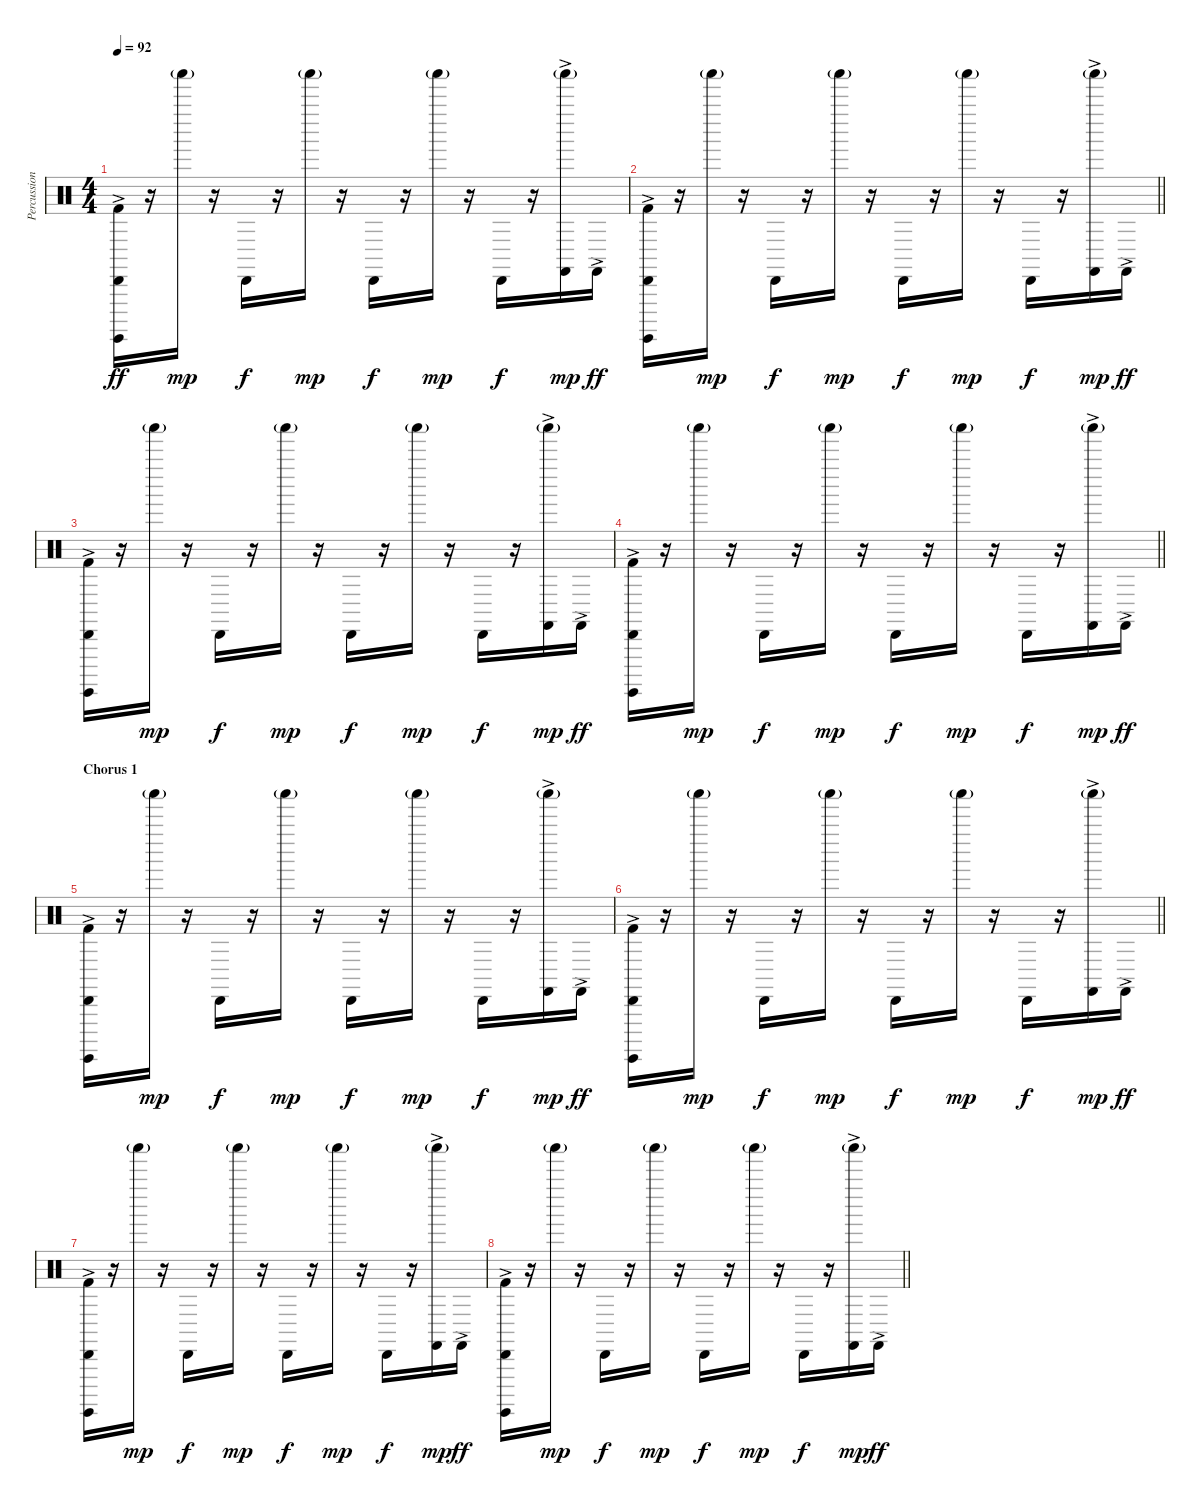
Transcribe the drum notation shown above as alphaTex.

\track ("Percussion" "Percussion") {instrument percussion}
\staff {score}
\articulation defaults
\ts (4 4)
\tempo 92
\clef neutral
\ks c
("Kick (hit) 2" "Surdo (hit)"{ac} "Cabasa (hit)").16{dy ff} r.16 "Shaker (hit)"{g}.16{dy mp} r.16 "Cabasa (hit)".16{dy f} r.16 "Shaker (hit)"{g}.16{dy mp} r.16 "Cabasa (hit)".16{dy f} r.16 "Shaker (hit)"{g}.16{dy mp} r.16 "Cabasa (hit)".16{dy f} r.16 ("Castanets (hit)"{ac} "Shaker (hit)"{g}).16{dy mp} "Castanets (hit)"{ac}.16{dy ff} |
\barLineRight lightlight
("Kick (hit) 2" "Surdo (hit)"{ac} "Cabasa (hit)").16 r.16 "Shaker (hit)"{g}.16{dy mp} r.16 "Cabasa (hit)".16{dy f} r.16 "Shaker (hit)"{g}.16{dy mp} r.16 "Cabasa (hit)".16{dy f} r.16 "Shaker (hit)"{g}.16{dy mp} r.16 "Cabasa (hit)".16{dy f} r.16 ("Castanets (hit)"{ac} "Shaker (hit)"{g}).16{dy mp} "Castanets (hit)"{ac}.16{dy ff} |
("Kick (hit) 2" "Surdo (hit)"{ac} "Cabasa (hit)").16 r.16 "Shaker (hit)"{g}.16{dy mp} r.16 "Cabasa (hit)".16{dy f} r.16 "Shaker (hit)"{g}.16{dy mp} r.16 "Cabasa (hit)".16{dy f} r.16 "Shaker (hit)"{g}.16{dy mp} r.16 "Cabasa (hit)".16{dy f} r.16 ("Castanets (hit)"{ac} "Shaker (hit)"{g}).16{dy mp} "Castanets (hit)"{ac}.16{dy ff} |
\barLineRight lightlight
("Kick (hit) 2" "Surdo (hit)"{ac} "Cabasa (hit)").16 r.16 "Shaker (hit)"{g}.16{dy mp} r.16 "Cabasa (hit)".16{dy f} r.16 "Shaker (hit)"{g}.16{dy mp} r.16 "Cabasa (hit)".16{dy f} r.16 "Shaker (hit)"{g}.16{dy mp} r.16 "Cabasa (hit)".16{dy f} r.16 ("Castanets (hit)"{ac} "Shaker (hit)"{g}).16{dy mp} "Castanets (hit)"{ac}.16{dy ff} |
\section ("" "Chorus 1")
("Kick (hit) 2" "Surdo (hit)"{ac} "Cabasa (hit)").16 r.16 "Shaker (hit)"{g}.16{dy mp} r.16 "Cabasa (hit)".16{dy f} r.16 "Shaker (hit)"{g}.16{dy mp} r.16 "Cabasa (hit)".16{dy f} r.16 "Shaker (hit)"{g}.16{dy mp} r.16 "Cabasa (hit)".16{dy f} r.16 ("Castanets (hit)"{ac} "Shaker (hit)"{g}).16{dy mp} "Castanets (hit)"{ac}.16{dy ff} |
\barLineRight lightlight
("Kick (hit) 2" "Surdo (hit)"{ac} "Cabasa (hit)").16 r.16 "Shaker (hit)"{g}.16{dy mp} r.16 "Cabasa (hit)".16{dy f} r.16 "Shaker (hit)"{g}.16{dy mp} r.16 "Cabasa (hit)".16{dy f} r.16 "Shaker (hit)"{g}.16{dy mp} r.16 "Cabasa (hit)".16{dy f} r.16 ("Castanets (hit)"{ac} "Shaker (hit)"{g}).16{dy mp} "Castanets (hit)"{ac}.16{dy ff} |
("Kick (hit) 2" "Surdo (hit)"{ac} "Cabasa (hit)").16 r.16 "Shaker (hit)"{g}.16{dy mp} r.16 "Cabasa (hit)".16{dy f} r.16 "Shaker (hit)"{g}.16{dy mp} r.16 "Cabasa (hit)".16{dy f} r.16 "Shaker (hit)"{g}.16{dy mp} r.16 "Cabasa (hit)".16{dy f} r.16 ("Castanets (hit)"{ac} "Shaker (hit)"{g}).16{dy mp} "Castanets (hit)"{ac}.16{dy ff} |
\barLineRight lightlight
("Kick (hit) 2" "Surdo (hit)"{ac} "Cabasa (hit)").16 r.16 "Shaker (hit)"{g}.16{dy mp} r.16 "Cabasa (hit)".16{dy f} r.16 "Shaker (hit)"{g}.16{dy mp} r.16 "Cabasa (hit)".16{dy f} r.16 "Shaker (hit)"{g}.16{dy mp} r.16 "Cabasa (hit)".16{dy f} r.16 ("Castanets (hit)"{ac} "Shaker (hit)"{g}).16{dy mp} "Castanets (hit)"{ac}.16{dy ff}
